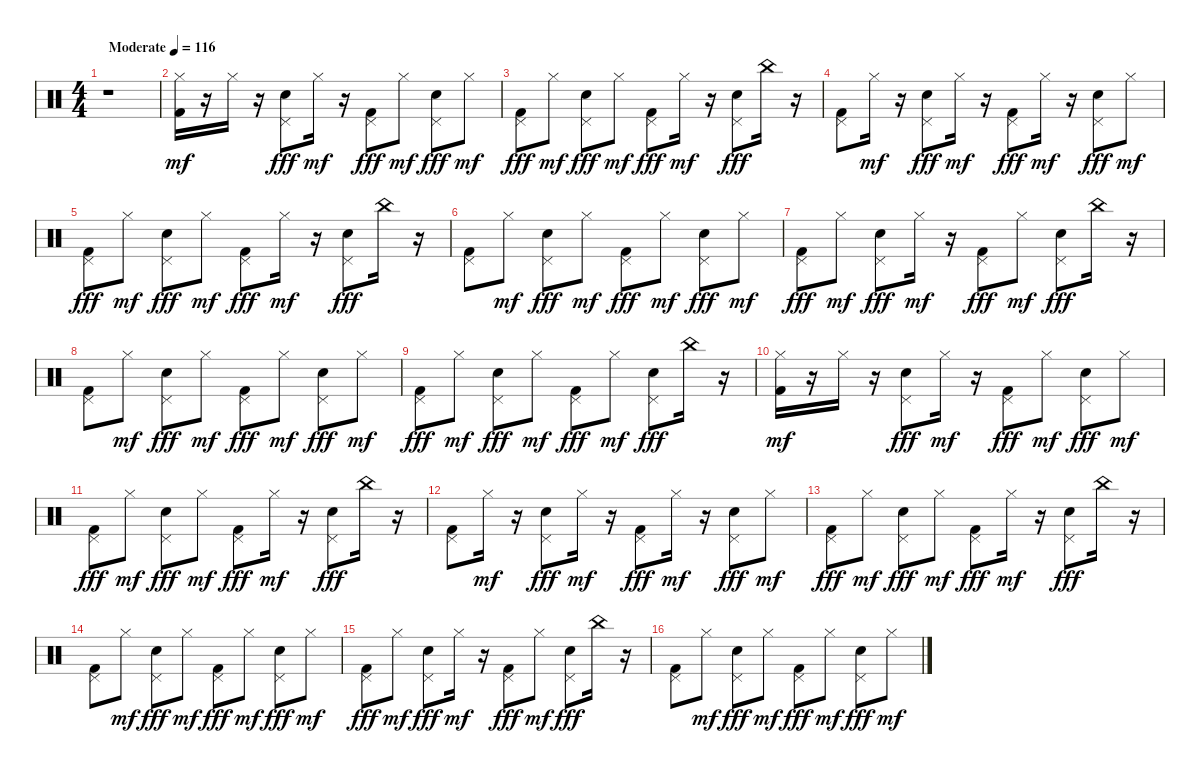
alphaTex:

\track "" {instrument percussion}
\staff {score}
\articulation defaults
\ts (4 4)
\tempo (116 "Moderate")
\clef neutral
\ks c
r.1{dy mf} |
("Kick (hit) 2" "Hi-Hat (closed)").16 r.16 "Hi-Hat (closed)".16 r.16 ("Snare (hit) 2" "Pedal Hi-Hat (hit)").8{dy fff} "Hi-Hat (closed)".16{dy mf} r.16 ("Kick (hit) 2" "Pedal Hi-Hat (hit)").8{dy fff} "Hi-Hat (closed)".8{dy mf} ("Snare (hit) 2" "Pedal Hi-Hat (hit)").8{dy fff} "Hi-Hat (closed)".8{dy mf} |
("Kick (hit) 2" "Pedal Hi-Hat (hit)").8{dy fff} "Hi-Hat (closed)".8{dy mf} ("Snare (hit) 2" "Pedal Hi-Hat (hit)").8{dy fff} "Hi-Hat (closed)".8{dy mf} ("Kick (hit) 2" "Pedal Hi-Hat (hit)").8{dy fff} "Hi-Hat (closed)".16{dy mf} r.16 ("Snare (hit) 2" "Pedal Hi-Hat (hit)").8{dy fff} "China (choke)".16 r.16 |
("Kick (hit) 2" "Pedal Hi-Hat (hit)").8 "Hi-Hat (closed)".16{dy mf} r.16 ("Snare (hit) 2" "Pedal Hi-Hat (hit)").8{dy fff} "Hi-Hat (closed)".16{dy mf} r.16 ("Kick (hit) 2" "Pedal Hi-Hat (hit)").8{dy fff} "Hi-Hat (closed)".16{dy mf} r.16 ("Snare (hit) 2" "Pedal Hi-Hat (hit)").8{dy fff} "Hi-Hat (closed)".8{dy mf} |
("Kick (hit) 2" "Pedal Hi-Hat (hit)").8{dy fff} "Hi-Hat (closed)".8{dy mf} ("Snare (hit) 2" "Pedal Hi-Hat (hit)").8{dy fff} "Hi-Hat (closed)".8{dy mf} ("Kick (hit) 2" "Pedal Hi-Hat (hit)").8{dy fff} "Hi-Hat (closed)".16{dy mf} r.16 ("Snare (hit) 2" "Pedal Hi-Hat (hit)").8{dy fff} "China (choke)".16 r.16 |
("Kick (hit) 2" "Pedal Hi-Hat (hit)").8 "Hi-Hat (closed)".8{dy mf} ("Snare (hit) 2" "Pedal Hi-Hat (hit)").8{dy fff} "Hi-Hat (closed)".8{dy mf} ("Kick (hit) 2" "Pedal Hi-Hat (hit)").8{dy fff} "Hi-Hat (closed)".8{dy mf} ("Snare (hit) 2" "Pedal Hi-Hat (hit)").8{dy fff} "Hi-Hat (closed)".8{dy mf} |
("Kick (hit) 2" "Pedal Hi-Hat (hit)").8{dy fff} "Hi-Hat (closed)".8{dy mf} ("Snare (hit) 2" "Pedal Hi-Hat (hit)").8{dy fff} "Hi-Hat (closed)".16{dy mf} r.16 ("Kick (hit) 2" "Pedal Hi-Hat (hit)").8{dy fff} "Hi-Hat (closed)".8{dy mf} ("Snare (hit) 2" "Pedal Hi-Hat (hit)").8{dy fff} "China (choke)".16 r.16 |
("Kick (hit) 2" "Pedal Hi-Hat (hit)").8 "Hi-Hat (closed)".8{dy mf} ("Snare (hit) 2" "Pedal Hi-Hat (hit)").8{dy fff} "Hi-Hat (closed)".8{dy mf} ("Kick (hit) 2" "Pedal Hi-Hat (hit)").8{dy fff} "Hi-Hat (closed)".8{dy mf} ("Snare (hit) 2" "Pedal Hi-Hat (hit)").8{dy fff} "Hi-Hat (closed)".8{dy mf} |
("Kick (hit) 2" "Pedal Hi-Hat (hit)").8{dy fff} "Hi-Hat (closed)".8{dy mf} ("Snare (hit) 2" "Pedal Hi-Hat (hit)").8{dy fff} "Hi-Hat (closed)".8{dy mf} ("Kick (hit) 2" "Pedal Hi-Hat (hit)").8{dy fff} "Hi-Hat (closed)".8{dy mf} ("Snare (hit) 2" "Pedal Hi-Hat (hit)").8{dy fff} "China (choke)".16 r.16 |
("Kick (hit) 2" "Hi-Hat (closed)").16{dy mf} r.16 "Hi-Hat (closed)".16 r.16 ("Snare (hit) 2" "Pedal Hi-Hat (hit)").8{dy fff} "Hi-Hat (closed)".16{dy mf} r.16 ("Kick (hit) 2" "Pedal Hi-Hat (hit)").8{dy fff} "Hi-Hat (closed)".8{dy mf} ("Snare (hit) 2" "Pedal Hi-Hat (hit)").8{dy fff} "Hi-Hat (closed)".8{dy mf} |
("Kick (hit) 2" "Pedal Hi-Hat (hit)").8{dy fff} "Hi-Hat (closed)".8{dy mf} ("Snare (hit) 2" "Pedal Hi-Hat (hit)").8{dy fff} "Hi-Hat (closed)".8{dy mf} ("Kick (hit) 2" "Pedal Hi-Hat (hit)").8{dy fff} "Hi-Hat (closed)".16{dy mf} r.16 ("Snare (hit) 2" "Pedal Hi-Hat (hit)").8{dy fff} "China (choke)".16 r.16 |
("Kick (hit) 2" "Pedal Hi-Hat (hit)").8 "Hi-Hat (closed)".16{dy mf} r.16 ("Snare (hit) 2" "Pedal Hi-Hat (hit)").8{dy fff} "Hi-Hat (closed)".16{dy mf} r.16 ("Kick (hit) 2" "Pedal Hi-Hat (hit)").8{dy fff} "Hi-Hat (closed)".16{dy mf} r.16 ("Snare (hit) 2" "Pedal Hi-Hat (hit)").8{dy fff} "Hi-Hat (closed)".8{dy mf} |
("Kick (hit) 2" "Pedal Hi-Hat (hit)").8{dy fff} "Hi-Hat (closed)".8{dy mf} ("Snare (hit) 2" "Pedal Hi-Hat (hit)").8{dy fff} "Hi-Hat (closed)".8{dy mf} ("Kick (hit) 2" "Pedal Hi-Hat (hit)").8{dy fff} "Hi-Hat (closed)".16{dy mf} r.16 ("Snare (hit) 2" "Pedal Hi-Hat (hit)").8{dy fff} "China (choke)".16 r.16 |
("Kick (hit) 2" "Pedal Hi-Hat (hit)").8 "Hi-Hat (closed)".8{dy mf} ("Snare (hit) 2" "Pedal Hi-Hat (hit)").8{dy fff} "Hi-Hat (closed)".8{dy mf} ("Kick (hit) 2" "Pedal Hi-Hat (hit)").8{dy fff} "Hi-Hat (closed)".8{dy mf} ("Snare (hit) 2" "Pedal Hi-Hat (hit)").8{dy fff} "Hi-Hat (closed)".8{dy mf} |
("Kick (hit) 2" "Pedal Hi-Hat (hit)").8{dy fff} "Hi-Hat (closed)".8{dy mf} ("Snare (hit) 2" "Pedal Hi-Hat (hit)").8{dy fff} "Hi-Hat (closed)".16{dy mf} r.16 ("Kick (hit) 2" "Pedal Hi-Hat (hit)").8{dy fff} "Hi-Hat (closed)".8{dy mf} ("Snare (hit) 2" "Pedal Hi-Hat (hit)").8{dy fff} "China (choke)".16 r.16 |
("Kick (hit) 2" "Pedal Hi-Hat (hit)").8 "Hi-Hat (closed)".8{dy mf} ("Snare (hit) 2" "Pedal Hi-Hat (hit)").8{dy fff} "Hi-Hat (closed)".8{dy mf} ("Kick (hit) 2" "Pedal Hi-Hat (hit)").8{dy fff} "Hi-Hat (closed)".8{dy mf} ("Snare (hit) 2" "Pedal Hi-Hat (hit)").8{dy fff} "Hi-Hat (closed)".8{dy mf}
